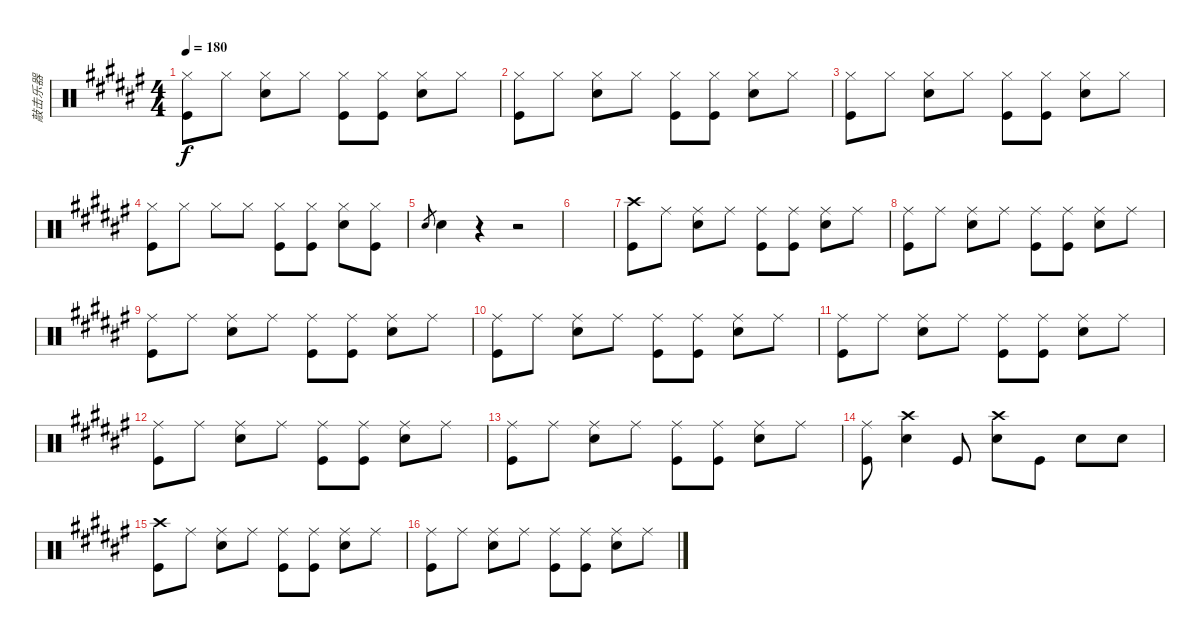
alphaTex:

\track ("敲击乐器" "敲击乐器") {instrument percussion}
\staff {score}
\articulation defaults
\ts (4 4)
\tempo 180
\clef neutral
\ks f#
("Hi-Hat (closed)" "Kick (hit)").8{dy f} "Hi-Hat (closed)".8 ("Hi-Hat (closed)" "Electric Snare (hit)").8 "Hi-Hat (closed)".8 ("Hi-Hat (closed)" "Kick (hit)").8 ("Hi-Hat (closed)" "Kick (hit)").8 ("Hi-Hat (closed)" "Electric Snare (hit)").8 "Hi-Hat (closed)".8 |
("Hi-Hat (closed)" "Kick (hit)").8 "Hi-Hat (closed)".8 ("Hi-Hat (closed)" "Electric Snare (hit)").8 "Hi-Hat (closed)".8 ("Hi-Hat (closed)" "Kick (hit)").8 ("Hi-Hat (closed)" "Kick (hit)").8 ("Hi-Hat (closed)" "Electric Snare (hit)").8 "Hi-Hat (closed)".8 |
("Hi-Hat (closed)" "Kick (hit)").8 "Hi-Hat (closed)".8 ("Hi-Hat (closed)" "Electric Snare (hit)").8 "Hi-Hat (closed)".8 ("Hi-Hat (closed)" "Kick (hit)").8 ("Hi-Hat (closed)" "Kick (hit)").8 ("Hi-Hat (closed)" "Electric Snare (hit)").8 "Hi-Hat (closed)".8 |
("Hi-Hat (closed)" "Kick (hit)").8 "Hi-Hat (closed)".8 "Hi-Hat (closed)".8 "Hi-Hat (closed)".8 ("Hi-Hat (closed)" "Kick (hit)").8 ("Hi-Hat (closed)" "Kick (hit)").8 ("Hi-Hat (closed)" "Electric Snare (hit)").8 ("Hi-Hat (closed)" "Kick (hit)").8 |
"Electric Snare (hit)".8{gr} "Electric Snare (hit)".4 r.4 r.2 |
|
("Crash high (hit)" "Kick (hit)").8 "Ride (middle)".8 ("Ride (middle)" "Electric Snare (hit)").8 "Ride (middle)".8 ("Ride (middle)" "Kick (hit)").8 ("Ride (middle)" "Kick (hit)").8 ("Ride (middle)" "Electric Snare (hit)").8 "Ride (middle)".8 |
("Ride (middle)" "Kick (hit)").8 "Ride (middle)".8 ("Ride (middle)" "Electric Snare (hit)").8 "Ride (middle)".8 ("Ride (middle)" "Kick (hit)").8 ("Ride (middle)" "Kick (hit)").8 ("Ride (middle)" "Electric Snare (hit)").8 "Ride (middle)".8 |
("Ride (middle)" "Kick (hit)").8 "Ride (middle)".8 ("Ride (middle)" "Electric Snare (hit)").8 "Ride (middle)".8 ("Ride (middle)" "Kick (hit)").8 ("Ride (middle)" "Kick (hit)").8 ("Ride (middle)" "Electric Snare (hit)").8 "Ride (middle)".8 |
("Ride (middle)" "Kick (hit)").8 "Ride (middle)".8 ("Ride (middle)" "Electric Snare (hit)").8 "Ride (middle)".8 ("Ride (middle)" "Kick (hit)").8 ("Ride (middle)" "Kick (hit)").8 ("Ride (middle)" "Electric Snare (hit)").8 "Ride (middle)".8 |
("Ride (middle)" "Kick (hit)").8 "Ride (middle)".8 ("Ride (middle)" "Electric Snare (hit)").8 "Ride (middle)".8 ("Ride (middle)" "Kick (hit)").8 ("Ride (middle)" "Kick (hit)").8 ("Ride (middle)" "Electric Snare (hit)").8 "Ride (middle)".8 |
("Ride (middle)" "Kick (hit)").8 "Ride (middle)".8 ("Ride (middle)" "Electric Snare (hit)").8 "Ride (middle)".8 ("Ride (middle)" "Kick (hit)").8 ("Ride (middle)" "Kick (hit)").8 ("Ride (middle)" "Electric Snare (hit)").8 "Ride (middle)".8 |
("Ride (middle)" "Kick (hit)").8 "Ride (middle)".8 ("Ride (middle)" "Electric Snare (hit)").8 "Ride (middle)".8 ("Ride (middle)" "Kick (hit)").8 ("Ride (middle)" "Kick (hit)").8 ("Ride (middle)" "Electric Snare (hit)").8 "Ride (middle)".8 |
("Ride (middle)" "Kick (hit)").8 ("Crash high (hit)" "Electric Snare (hit)").4 "Kick (hit)".8 ("Crash high (hit)" "Electric Snare (hit)").8 "Kick (hit)".8 "Electric Snare (hit)".8 "Electric Snare (hit)".8 |
("Crash high (hit)" "Kick (hit)").8 "Ride (middle)".8 ("Ride (middle)" "Electric Snare (hit)").8 "Ride (middle)".8 ("Ride (middle)" "Kick (hit)").8 ("Ride (middle)" "Kick (hit)").8 ("Ride (middle)" "Electric Snare (hit)").8 "Ride (middle)".8 |
("Ride (middle)" "Kick (hit)").8 "Ride (middle)".8 ("Ride (middle)" "Electric Snare (hit)").8 "Ride (middle)".8 ("Ride (middle)" "Kick (hit)").8 ("Ride (middle)" "Kick (hit)").8 ("Ride (middle)" "Electric Snare (hit)").8 "Ride (middle)".8
